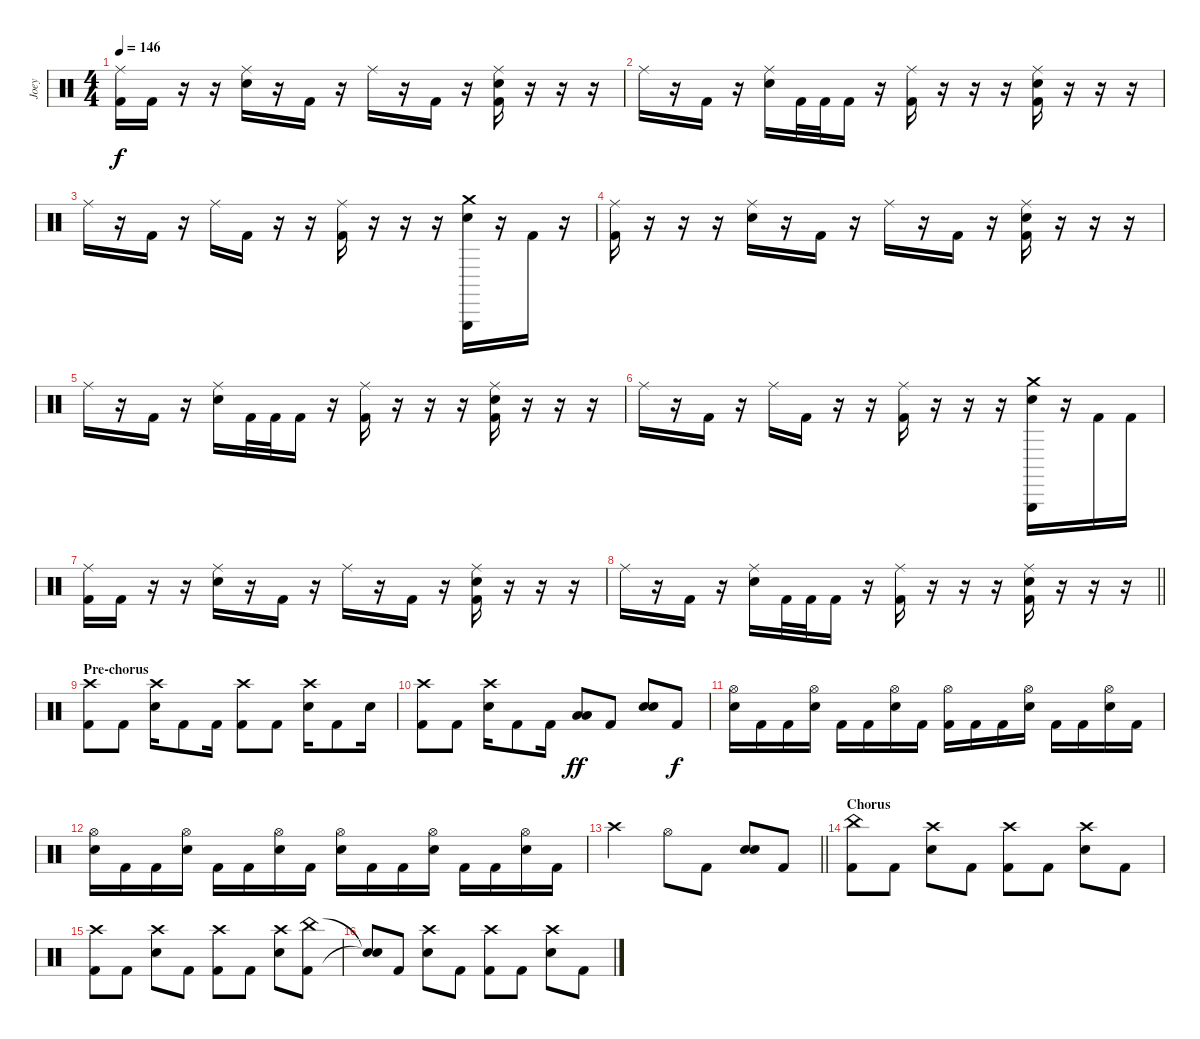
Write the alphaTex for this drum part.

\track ("Joey" "Joey") {instrument percussion}
\staff {score}
\articulation defaults
\ts (4 4)
\tempo 146
\clef neutral
\ks c
("Ride (middle)" "Kick (hit) 2").16{dy f} "Kick (hit) 2".16 r.16 r.16 ("Ride (middle)" "Snare (hit) 2").16 r.16 "Kick (hit) 2".16 r.16 "Ride (middle)".16 r.16 "Kick (hit) 2".16 r.16 ("Ride (middle)" "Snare (hit) 2" "Kick (hit) 2").16 r.16 r.16 r.16 |
"Ride (middle)".16 r.16 "Kick (hit) 2".16 r.16 ("Ride (middle)" "Snare (hit) 2").16 "Kick (hit) 2".32 "Kick (hit) 2".32 "Kick (hit) 2".16 r.16 ("Ride (middle)" "Kick (hit) 2").16 r.16 r.16 r.16 ("Ride (middle)" "Snare (hit) 2" "Kick (hit) 2").16 r.16 r.16 r.16 |
"Ride (middle)".16 r.16 "Kick (hit) 2".16 r.16 "Ride (middle)".16 "Kick (hit) 2".16 r.16 r.16 ("Ride (middle)" "Kick (hit) 2").16 r.16 r.16 r.16 ("Triangle (hit)" "Crash medium (hit)" "Snare (hit) 2").16 r.16 "Kick (hit) 2".16 r.16 |
("Ride (middle)" "Kick (hit) 2").16 r.16 r.16 r.16 ("Ride (middle)" "Snare (hit) 2").16 r.16 "Kick (hit) 2".16 r.16 "Ride (middle)".16 r.16 "Kick (hit) 2".16 r.16 ("Ride (middle)" "Snare (hit) 2" "Kick (hit) 2").16 r.16 r.16 r.16 |
"Ride (middle)".16 r.16 "Kick (hit) 2".16 r.16 ("Ride (middle)" "Snare (hit) 2").16 "Kick (hit) 2".32 "Kick (hit) 2".32 "Kick (hit) 2".16 r.16 ("Ride (middle)" "Kick (hit) 2").16 r.16 r.16 r.16 ("Ride (middle)" "Snare (hit) 2" "Kick (hit) 2").16 r.16 r.16 r.16 |
"Ride (middle)".16 r.16 "Kick (hit) 2".16 r.16 "Ride (middle)".16 "Kick (hit) 2".16 r.16 r.16 ("Ride (middle)" "Kick (hit) 2").16 r.16 r.16 r.16 ("Triangle (hit)" "Crash medium (hit)" "Snare (hit) 2").16 r.16 "Kick (hit) 2".16 "Kick (hit) 2".16 |
("Ride (middle)" "Kick (hit) 2").16 "Kick (hit) 2".16 r.16 r.16 ("Ride (middle)" "Snare (hit) 2").16 r.16 "Kick (hit) 2".16 r.16 "Ride (middle)".16 r.16 "Kick (hit) 2".16 r.16 ("Ride (middle)" "Snare (hit) 2" "Kick (hit) 2").16 r.16 r.16 r.16 |
\barLineRight lightlight "Ride (middle)".16
r.16 "Kick (hit) 2".16 r.16 ("Ride (middle)" "Snare (hit) 2").16 "Kick (hit) 2".32 "Kick (hit) 2".32 "Kick (hit) 2".16 r.16 ("Ride (middle)" "Kick (hit) 2").16 r.16 r.16 r.16 ("Ride (middle)" "Snare (hit) 2" "Kick (hit) 2").16 r.16 r.16 r.16 |
\section ("" "Pre-chorus")
("Crash high (hit)" "Kick (hit) 2").8 "Kick (hit) 2".8 ("Crash high (hit)" "Snare (hit) 2").16 "Kick (hit) 2".8 "Kick (hit) 2".16 ("Crash high (hit)" "Kick (hit) 2").8 "Kick (hit) 2".8 ("Crash high (hit)" "Snare (hit) 2").16 "Kick (hit) 2".8 "Snare (hit) 2".16 |
("Crash high (hit)" "Kick (hit) 2").8 "Kick (hit) 2".8 ("Crash high (hit)" "Snare (hit) 2").16 "Kick (hit) 2".8 "Kick (hit) 2".16 ("Low Floor Tom (hit)" "Low Tom (hit)").8{dy ff} "Kick (hit) 2".8 ("Snare (hit) 2" "Snare (hit) 2").8{bd 240} "Kick (hit) 2".8{dy f} |
("Hi-Hat (open)" "Snare (hit) 2").16 "Kick (hit) 2".16 "Kick (hit) 2".16 ("Hi-Hat (open)" "Snare (hit) 2").16 "Kick (hit) 2".16 "Kick (hit) 2".16 ("Hi-Hat (open)" "Snare (hit) 2").16 "Kick (hit) 2".16 ("Hi-Hat (open)" "Kick (hit) 2").16 "Kick (hit) 2".16 "Kick (hit) 2".16 ("Hi-Hat (open)" "Snare (hit) 2").16 "Kick (hit) 2".16 "Kick (hit) 2".16 ("Hi-Hat (open)" "Snare (hit) 2").16 "Kick (hit) 2".16 |
("Hi-Hat (open)" "Snare (hit) 2").16 "Kick (hit) 2".16 "Kick (hit) 2".16 ("Hi-Hat (open)" "Snare (hit) 2").16 "Kick (hit) 2".16 "Kick (hit) 2".16 ("Hi-Hat (open)" "Snare (hit) 2").16 "Kick (hit) 2".16 ("Hi-Hat (open)" "Snare (hit) 2").16 "Kick (hit) 2".16 "Kick (hit) 2".16 ("Hi-Hat (open)" "Snare (hit) 2").16 "Kick (hit) 2".16 "Kick (hit) 2".16 ("Hi-Hat (open)" "Snare (hit) 2").16 "Kick (hit) 2".16 |
\barLineRight lightlight "Crash high (hit)".2 "Hi-Hat (open)".8 "Kick (hit) 2".8
("Snare (hit) 2" "Snare (hit) 2").8{bd 240} "Kick (hit) 2".8 |
\section ("" "Chorus")
("China (hit)" "Kick (hit) 2").8 "Kick (hit) 2".8 ("Crash high (hit)" "Snare (hit) 2").8 "Kick (hit) 2".8 ("Crash high (hit)" "Kick (hit) 2").8 "Kick (hit) 2".8 ("Crash high (hit)" "Snare (hit) 2").8 "Kick (hit) 2".8 |
("Crash high (hit)" "Kick (hit) 2").8 "Kick (hit) 2".8 ("Crash high (hit)" "Snare (hit) 2").8 "Kick (hit) 2".8 ("Crash high (hit)" "Kick (hit) 2").8 "Kick (hit) 2".8 ("Crash high (hit)" "Snare (hit) 2").8 ("China (hit)" "Kick (hit) 2").8 |
("Snare (hit)"{t} "Snare (hit)"{t}).8 "Kick (hit) 2".8 ("Crash high (hit)" "Snare (hit) 2").8 "Kick (hit) 2".8 ("Crash high (hit)" "Kick (hit) 2").8 "Kick (hit) 2".8 ("Crash high (hit)" "Snare (hit) 2").8 "Kick (hit) 2".8
